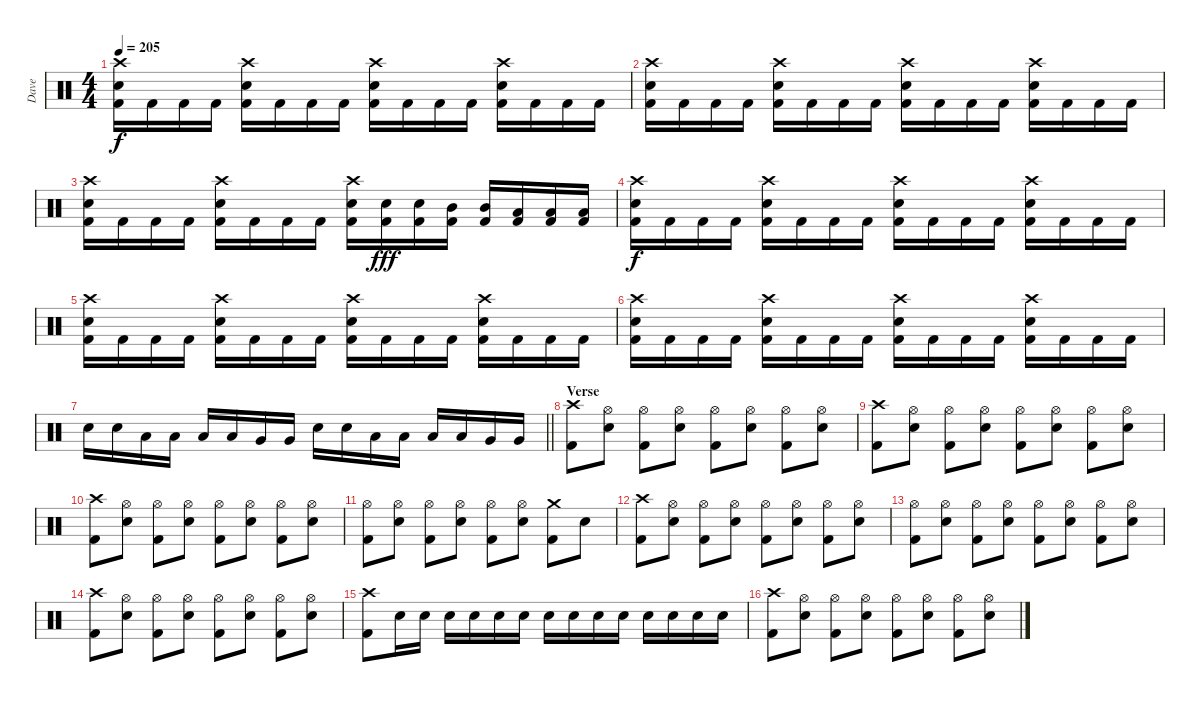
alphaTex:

\track ("Dave" "Dave") {instrument percussion}
\staff {score}
\articulation defaults
\ts (4 4)
\tempo 205
\clef neutral
\ks c
("Crash high (hit)" "Electric Snare (hit)" "Kick (hit) 2").16{dy f} "Kick (hit) 2".16 "Kick (hit) 2".16 "Kick (hit) 2".16 ("Crash high (hit)" "Electric Snare (hit)" "Kick (hit) 2").16 "Kick (hit) 2".16 "Kick (hit) 2".16 "Kick (hit) 2".16 ("Crash high (hit)" "Electric Snare (hit)" "Kick (hit) 2").16 "Kick (hit) 2".16 "Kick (hit) 2".16 "Kick (hit) 2".16 ("Crash high (hit)" "Electric Snare (hit)" "Kick (hit) 2").16 "Kick (hit) 2".16 "Kick (hit) 2".16 "Kick (hit) 2".16 |
("Crash high (hit)" "Electric Snare (hit)" "Kick (hit) 2").16 "Kick (hit) 2".16 "Kick (hit) 2".16 "Kick (hit) 2".16 ("Crash high (hit)" "Electric Snare (hit)" "Kick (hit) 2").16 "Kick (hit) 2".16 "Kick (hit) 2".16 "Kick (hit) 2".16 ("Crash high (hit)" "Electric Snare (hit)" "Kick (hit) 2").16 "Kick (hit) 2".16 "Kick (hit) 2".16 "Kick (hit) 2".16 ("Crash high (hit)" "Electric Snare (hit)" "Kick (hit) 2").16 "Kick (hit) 2".16 "Kick (hit) 2".16 "Kick (hit) 2".16 |
("Crash high (hit)" "Electric Snare (hit)" "Kick (hit) 2").16 "Kick (hit) 2".16 "Kick (hit) 2".16 "Kick (hit) 2".16 ("Crash high (hit)" "Electric Snare (hit)" "Kick (hit) 2").16 "Kick (hit) 2".16 "Kick (hit) 2".16 "Kick (hit) 2".16 ("Crash high (hit)" "Electric Snare (hit)" "Kick (hit) 2").16 ("Electric Snare (hit)" "Kick (hit) 2").16{dy fff} ("Electric Snare (hit)" "Kick (hit) 2").16 ("Mid Tom (hit)" "Kick (hit) 2").16 ("Mid Tom (hit)" "Kick (hit) 2").16 ("Low Tom (hit)" "Kick (hit) 2").16 ("Low Tom (hit)" "Kick (hit) 2").16 ("Low Tom (hit)" "Kick (hit) 2").16 |
("Crash high (hit)" "Electric Snare (hit)" "Kick (hit) 2").16{dy f} "Kick (hit) 2".16 "Kick (hit) 2".16 "Kick (hit) 2".16 ("Crash high (hit)" "Electric Snare (hit)" "Kick (hit) 2").16 "Kick (hit) 2".16 "Kick (hit) 2".16 "Kick (hit) 2".16 ("Crash high (hit)" "Electric Snare (hit)" "Kick (hit) 2").16 "Kick (hit) 2".16 "Kick (hit) 2".16 "Kick (hit) 2".16 ("Crash high (hit)" "Electric Snare (hit)" "Kick (hit) 2").16 "Kick (hit) 2".16 "Kick (hit) 2".16 "Kick (hit) 2".16 |
("Crash high (hit)" "Electric Snare (hit)" "Kick (hit) 2").16 "Kick (hit) 2".16 "Kick (hit) 2".16 "Kick (hit) 2".16 ("Crash high (hit)" "Electric Snare (hit)" "Kick (hit) 2").16 "Kick (hit) 2".16 "Kick (hit) 2".16 "Kick (hit) 2".16 ("Crash high (hit)" "Electric Snare (hit)" "Kick (hit) 2").16 "Kick (hit) 2".16 "Kick (hit) 2".16 "Kick (hit) 2".16 ("Crash high (hit)" "Electric Snare (hit)" "Kick (hit) 2").16 "Kick (hit) 2".16 "Kick (hit) 2".16 "Kick (hit) 2".16 |
("Crash high (hit)" "Electric Snare (hit)" "Kick (hit) 2").16 "Kick (hit) 2".16 "Kick (hit) 2".16 "Kick (hit) 2".16 ("Crash high (hit)" "Electric Snare (hit)" "Kick (hit) 2").16 "Kick (hit) 2".16 "Kick (hit) 2".16 "Kick (hit) 2".16 ("Crash high (hit)" "Electric Snare (hit)" "Kick (hit) 2").16 "Kick (hit) 2".16 "Kick (hit) 2".16 "Kick (hit) 2".16 ("Crash high (hit)" "Electric Snare (hit)" "Kick (hit) 2").16 "Kick (hit) 2".16 "Kick (hit) 2".16 "Kick (hit) 2".16 |
\barLineRight lightlight "Electric Snare (hit)".16 "Electric Snare (hit)".16 "Low Tom (hit)".16 "Low Tom (hit)".16 "Low Tom (hit)".16 "Low Tom (hit)".16 "Very Low Tom (hit)".16 "Very Low Tom (hit)".16 "Electric Snare (hit)".16 "Electric Snare (hit)".16 "Low Tom (hit)".16 "Low Tom (hit)".16 "Low Tom (hit)".16 "Low Tom (hit)".16 "Very Low Tom (hit)".16 "Very Low Tom (hit)".16
|
\section ("" "Verse")
("Crash high (hit)" "Kick (hit) 2").8 ("Electric Snare (hit)" "Hi-Hat (open)").8 ("Kick (hit) 2" "Hi-Hat (open)").8 ("Electric Snare (hit)" "Hi-Hat (open)").8 ("Kick (hit) 2" "Hi-Hat (open)").8 ("Electric Snare (hit)" "Hi-Hat (open)").8 ("Kick (hit) 2" "Hi-Hat (open)").8 ("Electric Snare (hit)" "Hi-Hat (open)").8 |
("Crash high (hit)" "Kick (hit) 2").8 ("Electric Snare (hit)" "Hi-Hat (open)").8 ("Kick (hit) 2" "Hi-Hat (open)").8 ("Electric Snare (hit)" "Hi-Hat (open)").8 ("Kick (hit) 2" "Hi-Hat (open)").8 ("Electric Snare (hit)" "Hi-Hat (open)").8 ("Kick (hit) 2" "Hi-Hat (open)").8 ("Electric Snare (hit)" "Hi-Hat (open)").8 |
("Crash high (hit)" "Kick (hit) 2").8 ("Electric Snare (hit)" "Hi-Hat (open)").8 ("Kick (hit) 2" "Hi-Hat (open)").8 ("Electric Snare (hit)" "Hi-Hat (open)").8 ("Kick (hit) 2" "Hi-Hat (open)").8 ("Electric Snare (hit)" "Hi-Hat (open)").8 ("Kick (hit) 2" "Hi-Hat (open)").8 ("Electric Snare (hit)" "Hi-Hat (open)").8 |
("Hi-Hat (open)" "Kick (hit) 2").8 ("Electric Snare (hit)" "Hi-Hat (open)").8 ("Kick (hit) 2" "Hi-Hat (open)").8 ("Electric Snare (hit)" "Hi-Hat (open)").8 ("Kick (hit) 2" "Hi-Hat (open)").8 ("Electric Snare (hit)" "Hi-Hat (open)").8 ("Kick (hit) 2" "Crash medium (hit)").8 "Electric Snare (hit)".8 |
("Crash high (hit)" "Kick (hit) 2").8 ("Electric Snare (hit)" "Hi-Hat (open)").8 ("Kick (hit) 2" "Hi-Hat (open)").8 ("Electric Snare (hit)" "Hi-Hat (open)").8 ("Kick (hit) 2" "Hi-Hat (open)").8 ("Electric Snare (hit)" "Hi-Hat (open)").8 ("Kick (hit) 2" "Hi-Hat (open)").8 ("Electric Snare (hit)" "Hi-Hat (open)").8 |
("Hi-Hat (open)" "Kick (hit) 2").8 ("Electric Snare (hit)" "Hi-Hat (open)").8 ("Kick (hit) 2" "Hi-Hat (open)").8 ("Electric Snare (hit)" "Hi-Hat (open)").8 ("Kick (hit) 2" "Hi-Hat (open)").8 ("Electric Snare (hit)" "Hi-Hat (open)").8 ("Kick (hit) 2" "Hi-Hat (open)").8 ("Electric Snare (hit)" "Hi-Hat (open)").8 |
("Crash high (hit)" "Kick (hit) 2").8 ("Electric Snare (hit)" "Hi-Hat (open)").8 ("Kick (hit) 2" "Hi-Hat (open)").8 ("Electric Snare (hit)" "Hi-Hat (open)").8 ("Kick (hit) 2" "Hi-Hat (open)").8 ("Electric Snare (hit)" "Hi-Hat (open)").8 ("Kick (hit) 2" "Hi-Hat (open)").8 ("Electric Snare (hit)" "Hi-Hat (open)").8 |
("Kick (hit) 2" "Crash high (hit)").8 "Electric Snare (hit)".16 "Electric Snare (hit)".16 "Electric Snare (hit)".16 "Electric Snare (hit)".16 "Electric Snare (hit)".16 "Electric Snare (hit)".16 "Electric Snare (hit)".16 "Electric Snare (hit)".16 "Electric Snare (hit)".16 "Electric Snare (hit)".16 "Electric Snare (hit)".16 "Electric Snare (hit)".16 "Electric Snare (hit)".16 "Electric Snare (hit)".16 |
("Crash high (hit)" "Kick (hit) 2").8 ("Electric Snare (hit)" "Hi-Hat (open)").8 ("Kick (hit) 2" "Hi-Hat (open)").8 ("Electric Snare (hit)" "Hi-Hat (open)").8 ("Kick (hit) 2" "Hi-Hat (open)").8 ("Electric Snare (hit)" "Hi-Hat (open)").8 ("Kick (hit) 2" "Hi-Hat (open)").8 ("Electric Snare (hit)" "Hi-Hat (open)").8
